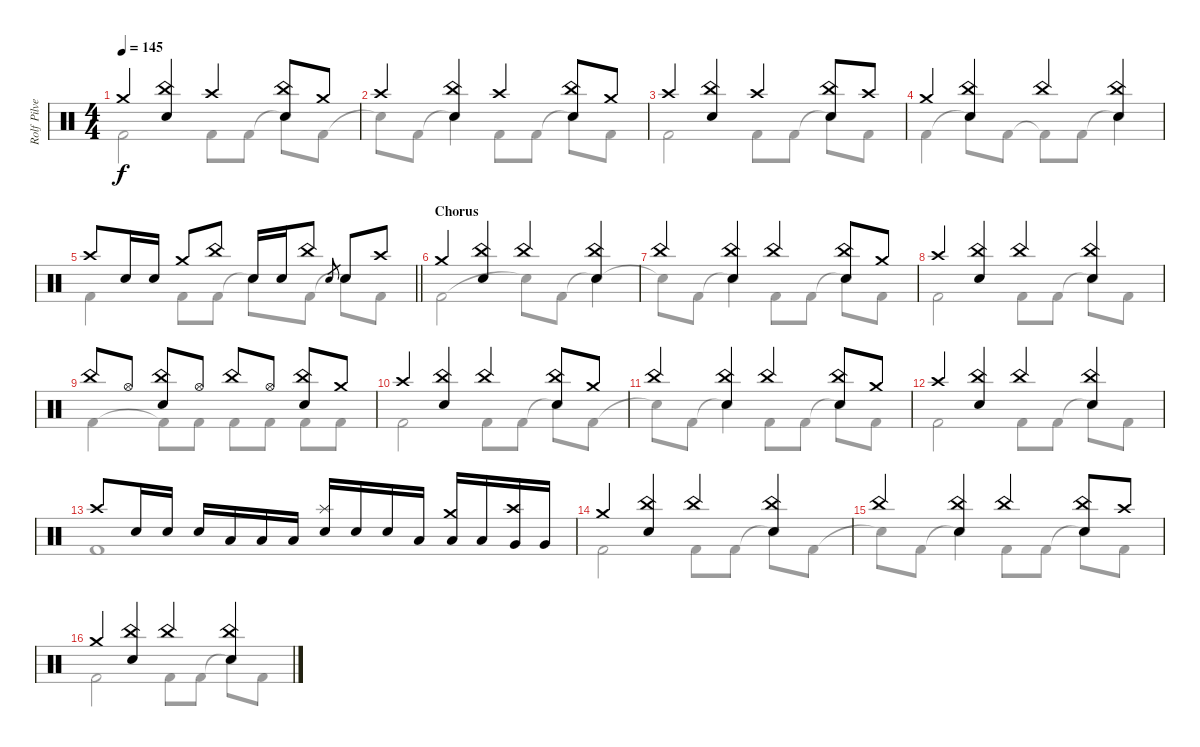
\track ("Rolf Pilve - drums" "Rolf Pilve") {instrument percussion}
\staff {score}
\articulation defaults
\voice
\ts (4 4)
\tempo 145
\clef neutral
\ks aminor "Crash medium (hit)".4{dy f}
("China (hit)" "Electric Snare (hit)").4 "Crash high (hit)".4 ("China (hit)" "Electric Snare (hit)").8 "Crash medium (hit)".8 |
"Crash high (hit)".4 ("China (hit)" "Electric Snare (hit)").4 "Crash high (hit)".4 ("China (hit)" "Electric Snare (hit)").8 "Crash medium (hit)".8 |
"Crash high (hit)".4 ("China (hit)" "Electric Snare (hit)").4 "Crash high (hit)".4 ("China (hit)" "Electric Snare (hit)").8 "Crash high (hit)".8 |
"Crash medium (hit)".4 ("China (hit)" "Electric Snare (hit)").4 "China (hit)".4 ("China (hit)" "Electric Snare (hit)").4 |
\barLineRight lightlight "Crash high (hit)".8 "Electric Snare (hit)".16 "Electric Snare (hit)".16 "Crash medium (hit)".8 "China (hit)".8 "Electric Snare (hit)".16 "Electric Snare (hit)".16 "China (hit)".8 "Electric Snare (hit)".8{gr} "Electric Snare (hit)".8 "Crash high (hit)".8
|
\section ("" "Chorus")
"Crash medium (hit)".4 ("China (hit)" "Electric Snare (hit)").4 "China (hit)".4 ("China (hit)" "Electric Snare (hit)").4 |
"China (hit)".4 ("China (hit)" "Electric Snare (hit)").4 "China (hit)".4 ("China (hit)" "Electric Snare (hit)").8 "Crash medium (hit)".8 |
"Crash high (hit)".4 ("China (hit)" "Electric Snare (hit)").4 "China (hit)".4 ("China (hit)" "Electric Snare (hit)").4 |
"China (hit)".8 "Hi-Hat (open)".8 ("China (hit)" "Electric Snare (hit)").8 "Hi-Hat (open)".8 "China (hit)".8 "Hi-Hat (open)".8 ("China (hit)" "Electric Snare (hit)").8 "Crash medium (hit)".8 |
"Crash high (hit)".4 ("China (hit)" "Electric Snare (hit)").4 "China (hit)".4 ("China (hit)" "Electric Snare (hit)").8 "Crash medium (hit)".8 |
"China (hit)".4 ("China (hit)" "Electric Snare (hit)").4 "China (hit)".4 ("China (hit)" "Electric Snare (hit)").8 "Crash medium (hit)".8 |
"Crash high (hit)".4 ("China (hit)" "Electric Snare (hit)").4 "China (hit)".4 ("China (hit)" "Electric Snare (hit)").4 |
"Crash high (hit)".8 "Electric Snare (hit)".16 "Electric Snare (hit)".16 "Electric Snare (hit)".16 "Low Tom (hit)".16 "Low Tom (hit)".16 "Low Tom (hit)".16 ("Splash (hit)" "Electric Snare (hit)").16 "Electric Snare (hit)".16 "Electric Snare (hit)".16 "Low Tom (hit)".16 ("Crash medium (hit)" "Low Tom (hit)").16 "Low Tom (hit)".16 ("Crash high (hit)" "Very Low Tom (hit)").16 "Very Low Tom (hit)".16 |
"Crash medium (hit)".4 ("China (hit)" "Electric Snare (hit)").4 "China (hit)".4 ("China (hit)" "Electric Snare (hit)").4 |
"China (hit)".4 ("China (hit)" "Electric Snare (hit)").4 "China (hit)".4 ("China (hit)" "Electric Snare (hit)").8 "Crash high (hit)".8 |
"Crash medium (hit)".4 ("China (hit)" "Electric Snare (hit)").4 "China (hit)".4 ("China (hit)" "Electric Snare (hit)").4
\voice
\clef neutral
\ottava regular
\simile none
\ks aminor "Kick (hit) 2".2{dy f} "Kick (hit) 2".8 "Kick (hit) 2".8 "Snare (hit)"{t}.8 "Kick (hit) 2".8
|
"Snare (hit)"{t}.8 "Kick (hit) 2".8 "Snare (hit)"{t}.4 "Kick (hit) 2".8 "Kick (hit) 2".8 "Snare (hit)"{t}.8 "Kick (hit) 2".8 |
"Kick (hit) 2".2 "Kick (hit) 2".8 "Kick (hit) 2".8 "Snare (hit)"{t}.8 "Kick (hit) 2".8 |
"Kick (hit) 2".4 "Snare (hit)"{t}.8 "Kick (hit) 2".8 "Kick (hit) 2"{t}.8 "Kick (hit) 2".8 "Snare (hit)"{t}.4 |
\barLineRight lightlight "Kick (hit) 2".4 "Kick (hit) 2".8 "Kick (hit) 2".8 "Snare (hit)"{t}.8 "Kick (hit) 2".8 "Snare (hit)"{t}.8 "Kick (hit) 2".8
|
"Kick (hit) 2".2 "Snare (hit)"{t}.8 "Kick (hit) 2".8 "Snare (hit)"{t}.4 |
"Snare (hit)"{t}.8 "Kick (hit) 2".8 "Snare (hit)"{t}.4 "Kick (hit) 2".8 "Kick (hit) 2".8 "Snare (hit)"{t}.8 "Kick (hit) 2".8 |
"Kick (hit) 2".2 "Kick (hit) 2".8 "Kick (hit) 2".8 "Snare (hit)"{t}.8 "Kick (hit) 2".8 |
"Kick (hit) 2".4 "Kick (hit) 2"{t}.8 "Kick (hit) 2".8 "Kick (hit) 2".8 "Kick (hit) 2".8 "Kick (hit) 2".8 "Kick (hit) 2".8 |
"Kick (hit) 2".2 "Kick (hit) 2".8 "Kick (hit) 2".8 "Snare (hit)"{t}.8 "Kick (hit) 2".8 |
"Snare (hit)"{t}.8 "Kick (hit) 2".8 "Snare (hit)"{t}.4 "Kick (hit) 2".8 "Kick (hit) 2".8 "Snare (hit)"{t}.8 "Kick (hit) 2".8 |
"Kick (hit) 2".2 "Kick (hit) 2".8 "Kick (hit) 2".8 "Snare (hit)"{t}.8 "Kick (hit) 2".8 |
"Kick (hit) 2".1 |
"Kick (hit) 2".2 "Kick (hit) 2".8 "Kick (hit) 2".8 "Snare (hit)"{t}.8 "Kick (hit) 2".8 |
"Snare (hit)"{t}.8 "Kick (hit) 2".8 "Snare (hit)"{t}.4 "Kick (hit) 2".8 "Kick (hit) 2".8 "Snare (hit)"{t}.8 "Kick (hit) 2".8 |
"Kick (hit) 2".2 "Kick (hit) 2".8 "Kick (hit) 2".8 "Snare (hit)"{t}.8 "Kick (hit) 2".8
